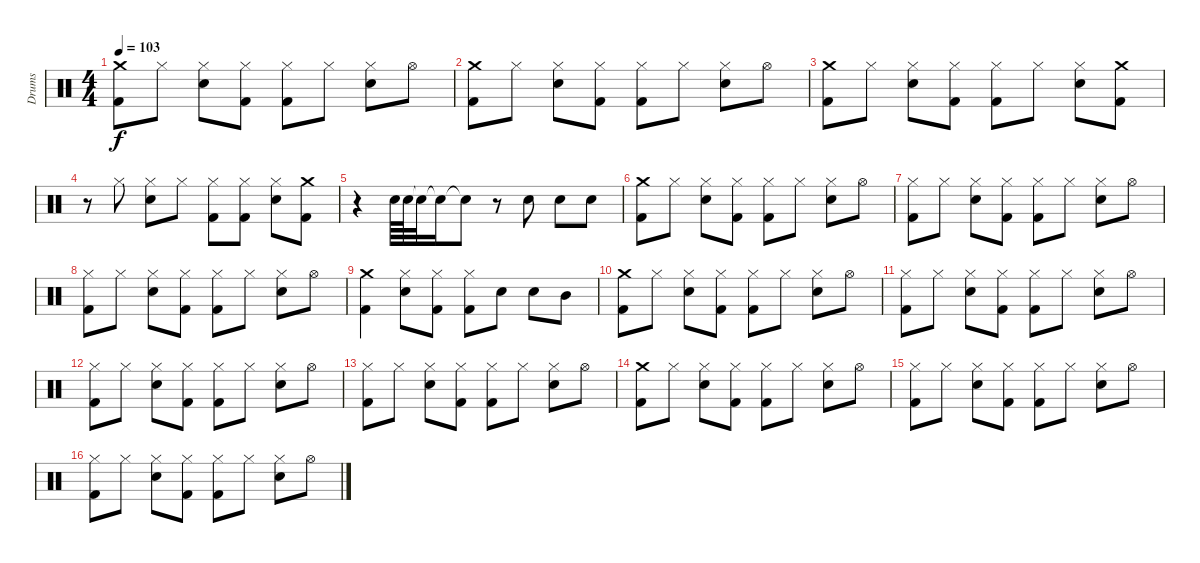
\track ("Drums" "Drums") {instrument percussion}
\staff {score}
\articulation defaults
\ts (4 4)
\tempo 103
\clef neutral
\ks c
("Crash medium (hit)" "Kick (hit) 2").8{dy f} "Hi-Hat (closed)".8 ("Hi-Hat (closed)" "Electric Snare (hit)").8 ("Hi-Hat (closed)" "Kick (hit) 2").8 ("Hi-Hat (closed)" "Kick (hit) 2").8 "Hi-Hat (closed)".8 ("Hi-Hat (closed)" "Electric Snare (hit)").8 "Hi-Hat (open)".8 |
("Crash medium (hit)" "Kick (hit) 2").8 "Hi-Hat (closed)".8 ("Hi-Hat (closed)" "Electric Snare (hit)").8 ("Hi-Hat (closed)" "Kick (hit) 2").8 ("Hi-Hat (closed)" "Kick (hit) 2").8 "Hi-Hat (closed)".8 ("Hi-Hat (closed)" "Electric Snare (hit)").8 "Hi-Hat (open)".8 |
("Crash medium (hit)" "Kick (hit) 2").8 "Hi-Hat (closed)".8 ("Hi-Hat (closed)" "Electric Snare (hit)").8 ("Hi-Hat (closed)" "Kick (hit) 2").8 ("Hi-Hat (closed)" "Kick (hit) 2").8 "Hi-Hat (closed)".8 ("Hi-Hat (closed)" "Electric Snare (hit)").8 ("Crash medium (hit)" "Kick (hit) 2").8 |
r.8 "Hi-Hat (closed)".8 ("Hi-Hat (closed)" "Electric Snare (hit)").8 "Hi-Hat (closed)".8 ("Hi-Hat (closed)" "Kick (hit) 2").8 ("Hi-Hat (closed)" "Kick (hit) 2").8 ("Hi-Hat (closed)" "Electric Snare (hit)").8 ("Crash medium (hit)" "Kick (hit) 2").8 |
r.4 "Electric Snare (hit)".64 "Electric Snare (hit)".64 "Snare (hit)"{t}.32 "Snare (hit)"{t}.16 "Snare (hit)"{t}.8 r.8 "Electric Snare (hit)".8 "Electric Snare (hit)".8 "Electric Snare (hit)".8 |
("Crash medium (hit)" "Kick (hit) 2").8 "Hi-Hat (closed)".8 ("Hi-Hat (closed)" "Electric Snare (hit)").8 ("Hi-Hat (closed)" "Kick (hit) 2").8 ("Hi-Hat (closed)" "Kick (hit) 2").8 "Hi-Hat (closed)".8 ("Hi-Hat (closed)" "Electric Snare (hit)").8 "Hi-Hat (open)".8 |
("Hi-Hat (closed)" "Kick (hit) 2").8 "Hi-Hat (closed)".8 ("Hi-Hat (closed)" "Electric Snare (hit)").8 ("Hi-Hat (closed)" "Kick (hit) 2").8 ("Hi-Hat (closed)" "Kick (hit) 2").8 "Hi-Hat (closed)".8 ("Hi-Hat (closed)" "Electric Snare (hit)").8 "Hi-Hat (open)".8 |
("Hi-Hat (closed)" "Kick (hit) 2").8 "Hi-Hat (closed)".8 ("Hi-Hat (closed)" "Electric Snare (hit)").8 ("Hi-Hat (closed)" "Kick (hit) 2").8 ("Hi-Hat (closed)" "Kick (hit) 2").8 "Hi-Hat (closed)".8 ("Hi-Hat (closed)" "Electric Snare (hit)").8 "Hi-Hat (open)".8 |
("Crash medium (hit)" "Kick (hit) 2").4 ("Hi-Hat (closed)" "Electric Snare (hit)").8 ("Hi-Hat (closed)" "Kick (hit) 2").8 ("Hi-Hat (closed)" "Kick (hit) 2").8 "Electric Snare (hit)".8 "Electric Snare (hit)".8 "Mid Tom (hit)".8 |
("Crash medium (hit)" "Kick (hit) 2").8 "Hi-Hat (closed)".8 ("Hi-Hat (closed)" "Electric Snare (hit)").8 ("Hi-Hat (closed)" "Kick (hit) 2").8 ("Hi-Hat (closed)" "Kick (hit) 2").8 "Hi-Hat (closed)".8 ("Hi-Hat (closed)" "Electric Snare (hit)").8 "Hi-Hat (open)".8 |
("Hi-Hat (closed)" "Kick (hit) 2").8 "Hi-Hat (closed)".8 ("Hi-Hat (closed)" "Electric Snare (hit)").8 ("Hi-Hat (closed)" "Kick (hit) 2").8 ("Hi-Hat (closed)" "Kick (hit) 2").8 "Hi-Hat (closed)".8 ("Hi-Hat (closed)" "Electric Snare (hit)").8 "Hi-Hat (open)".8 |
("Hi-Hat (closed)" "Kick (hit) 2").8 "Hi-Hat (closed)".8 ("Hi-Hat (closed)" "Electric Snare (hit)").8 ("Hi-Hat (closed)" "Kick (hit) 2").8 ("Hi-Hat (closed)" "Kick (hit) 2").8 "Hi-Hat (closed)".8 ("Hi-Hat (closed)" "Electric Snare (hit)").8 "Hi-Hat (open)".8 |
("Hi-Hat (closed)" "Kick (hit) 2").8 "Hi-Hat (closed)".8 ("Hi-Hat (closed)" "Electric Snare (hit)").8 ("Hi-Hat (closed)" "Kick (hit) 2").8 ("Hi-Hat (closed)" "Kick (hit) 2").8 "Hi-Hat (closed)".8 ("Hi-Hat (closed)" "Electric Snare (hit)").8 "Hi-Hat (open)".8 |
("Crash medium (hit)" "Kick (hit) 2").8 "Hi-Hat (closed)".8 ("Hi-Hat (closed)" "Electric Snare (hit)").8 ("Hi-Hat (closed)" "Kick (hit) 2").8 ("Hi-Hat (closed)" "Kick (hit) 2").8 "Hi-Hat (closed)".8 ("Hi-Hat (closed)" "Electric Snare (hit)").8 "Hi-Hat (open)".8 |
("Hi-Hat (closed)" "Kick (hit) 2").8 "Hi-Hat (closed)".8 ("Hi-Hat (closed)" "Electric Snare (hit)").8 ("Hi-Hat (closed)" "Kick (hit) 2").8 ("Hi-Hat (closed)" "Kick (hit) 2").8 "Hi-Hat (closed)".8 ("Hi-Hat (closed)" "Electric Snare (hit)").8 "Hi-Hat (open)".8 |
("Hi-Hat (closed)" "Kick (hit) 2").8 "Hi-Hat (closed)".8 ("Hi-Hat (closed)" "Electric Snare (hit)").8 ("Hi-Hat (closed)" "Kick (hit) 2").8 ("Hi-Hat (closed)" "Kick (hit) 2").8 "Hi-Hat (closed)".8 ("Hi-Hat (closed)" "Electric Snare (hit)").8 "Hi-Hat (open)".8
